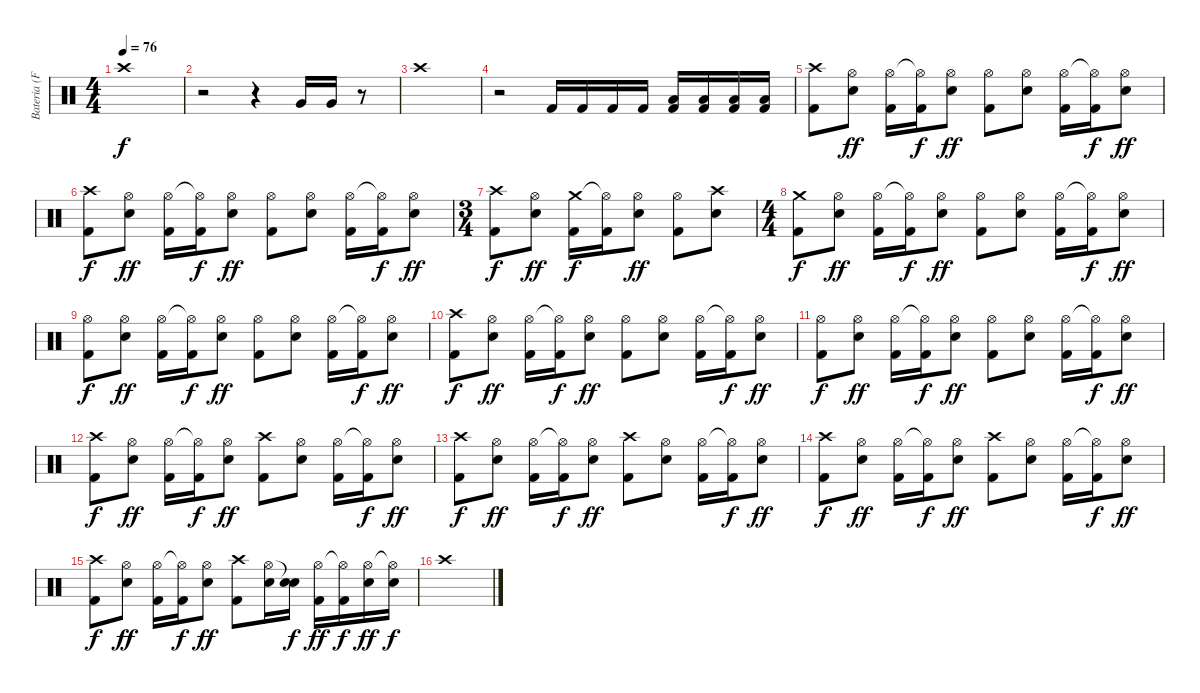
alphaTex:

\track ("Bateria (Fê Lemos)" "Bateria (F") {instrument percussion}
\staff {score}
\articulation defaults
\ts (4 4)
\tempo 76
\clef neutral
\ks c "Crash high (hit)".1{dy f}
|
r.2 r.4 "Very Low Tom (hit)".16 "Very Low Tom (hit)".16 r.8 |
"Crash high (hit)".1 |
r.2 "Kick (hit) 2".16 "Kick (hit) 2".16 "Kick (hit) 2".16 "Kick (hit) 2".16 ("Low Tom (hit)" "Kick (hit) 2").16 ("Low Tom (hit)" "Kick (hit) 2").16 ("Low Tom (hit)" "Kick (hit) 2").16 ("Low Tom (hit)" "Kick (hit) 2").16 |
("Crash high (hit)" "Kick (hit) 2").8 ("Hi-Hat (open)" "Electric Snare (hit)").8{dy ff} ("Hi-Hat (open)" "Kick (hit) 2").16 ("Hi-Hat (open)"{t} "Kick (hit) 2").16{dy f} ("Hi-Hat (open)" "Electric Snare (hit)").8{dy ff} ("Hi-Hat (open)" "Kick (hit) 2").8 ("Hi-Hat (open)" "Electric Snare (hit)").8 ("Hi-Hat (open)" "Kick (hit) 2").16 ("Hi-Hat (open)"{t} "Kick (hit) 2").16{dy f} ("Hi-Hat (open)" "Electric Snare (hit)").8{dy ff} |
("Crash high (hit)" "Kick (hit) 2").8{dy f} ("Hi-Hat (open)" "Electric Snare (hit)").8{dy ff} ("Hi-Hat (open)" "Kick (hit) 2").16 ("Hi-Hat (open)"{t} "Kick (hit) 2").16{dy f} ("Hi-Hat (open)" "Electric Snare (hit)").8{dy ff} ("Hi-Hat (open)" "Kick (hit) 2").8 ("Hi-Hat (open)" "Electric Snare (hit)").8 ("Hi-Hat (open)" "Kick (hit) 2").16 ("Hi-Hat (open)"{t} "Kick (hit) 2").16{dy f} ("Hi-Hat (open)" "Electric Snare (hit)").8{dy ff} |
\ts (3 4)
("Crash high (hit)" "Kick (hit) 2").8{dy f} ("Hi-Hat (open)" "Electric Snare (hit)").8{dy ff} ("Crash medium (hit)" "Kick (hit) 2").16{dy f} ("Hi-Hat (open)"{t} "Kick (hit) 2").16 ("Hi-Hat (open)" "Electric Snare (hit)").8{dy ff} ("Hi-Hat (open)" "Kick (hit) 2").8 ("Crash high (hit)" "Electric Snare (hit)").8 |
\ts (4 4)
("Crash medium (hit)" "Kick (hit) 2").8{dy f} ("Hi-Hat (open)" "Electric Snare (hit)").8{dy ff} ("Hi-Hat (open)" "Kick (hit) 2").16 ("Hi-Hat (open)"{t} "Kick (hit) 2").16{dy f} ("Hi-Hat (open)" "Electric Snare (hit)").8{dy ff} ("Hi-Hat (open)" "Kick (hit) 2").8 ("Hi-Hat (open)" "Electric Snare (hit)").8 ("Hi-Hat (open)" "Kick (hit) 2").16 ("Hi-Hat (open)"{t} "Kick (hit) 2").16{dy f} ("Hi-Hat (open)" "Electric Snare (hit)").8{dy ff} |
("Hi-Hat (open)" "Kick (hit) 2").8{dy f} ("Hi-Hat (open)" "Electric Snare (hit)").8{dy ff} ("Hi-Hat (open)" "Kick (hit) 2").16 ("Hi-Hat (open)"{t} "Kick (hit) 2").16{dy f} ("Hi-Hat (open)" "Electric Snare (hit)").8{dy ff} ("Hi-Hat (open)" "Kick (hit) 2").8 ("Hi-Hat (open)" "Electric Snare (hit)").8 ("Hi-Hat (open)" "Kick (hit) 2").16 ("Hi-Hat (open)"{t} "Kick (hit) 2").16{dy f} ("Hi-Hat (open)" "Electric Snare (hit)").8{dy ff} |
("Crash high (hit)" "Kick (hit) 2").8{dy f} ("Hi-Hat (open)" "Electric Snare (hit)").8{dy ff} ("Hi-Hat (open)" "Kick (hit) 2").16 ("Hi-Hat (open)"{t} "Kick (hit) 2").16{dy f} ("Hi-Hat (open)" "Electric Snare (hit)").8{dy ff} ("Hi-Hat (open)" "Kick (hit) 2").8 ("Hi-Hat (open)" "Electric Snare (hit)").8 ("Hi-Hat (open)" "Kick (hit) 2").16 ("Hi-Hat (open)"{t} "Kick (hit) 2").16{dy f} ("Hi-Hat (open)" "Electric Snare (hit)").8{dy ff} |
("Hi-Hat (open)" "Kick (hit) 2").8{dy f} ("Hi-Hat (open)" "Electric Snare (hit)").8{dy ff} ("Hi-Hat (open)" "Kick (hit) 2").16 ("Hi-Hat (open)"{t} "Kick (hit) 2").16{dy f} ("Hi-Hat (open)" "Electric Snare (hit)").8{dy ff} ("Hi-Hat (open)" "Kick (hit) 2").8 ("Hi-Hat (open)" "Electric Snare (hit)").8 ("Hi-Hat (open)" "Kick (hit) 2").16 ("Hi-Hat (open)"{t} "Kick (hit) 2").16{dy f} ("Hi-Hat (open)" "Electric Snare (hit)").8{dy ff} |
("Crash high (hit)" "Kick (hit) 2").8{dy f} ("Hi-Hat (open)" "Electric Snare (hit)").8{dy ff} ("Hi-Hat (open)" "Kick (hit) 2").16 ("Hi-Hat (open)"{t} "Kick (hit) 2").16{dy f} ("Hi-Hat (open)" "Electric Snare (hit)").8{dy ff} ("Crash high (hit)" "Kick (hit) 2").8 ("Hi-Hat (open)" "Electric Snare (hit)").8 ("Hi-Hat (open)" "Kick (hit) 2").16 ("Hi-Hat (open)"{t} "Kick (hit) 2").16{dy f} ("Hi-Hat (open)" "Electric Snare (hit)").8{dy ff} |
("Crash high (hit)" "Kick (hit) 2").8{dy f} ("Hi-Hat (open)" "Electric Snare (hit)").8{dy ff} ("Hi-Hat (open)" "Kick (hit) 2").16 ("Hi-Hat (open)"{t} "Kick (hit) 2").16{dy f} ("Hi-Hat (open)" "Electric Snare (hit)").8{dy ff} ("Crash high (hit)" "Kick (hit) 2").8 ("Hi-Hat (open)" "Electric Snare (hit)").8 ("Hi-Hat (open)" "Kick (hit) 2").16 ("Hi-Hat (open)"{t} "Kick (hit) 2").16{dy f} ("Hi-Hat (open)" "Electric Snare (hit)").8{dy ff} |
("Crash high (hit)" "Kick (hit) 2").8{dy f} ("Hi-Hat (open)" "Electric Snare (hit)").8{dy ff} ("Hi-Hat (open)" "Kick (hit) 2").16 ("Hi-Hat (open)"{t} "Kick (hit) 2").16{dy f} ("Hi-Hat (open)" "Electric Snare (hit)").8{dy ff} ("Crash high (hit)" "Kick (hit) 2").8 ("Hi-Hat (open)" "Electric Snare (hit)").8 ("Hi-Hat (open)" "Kick (hit) 2").16 ("Hi-Hat (open)"{t} "Kick (hit) 2").16{dy f} ("Hi-Hat (open)" "Electric Snare (hit)").8{dy ff} |
("Crash high (hit)" "Kick (hit) 2").8{dy f} ("Hi-Hat (open)" "Electric Snare (hit)").8{dy ff} ("Hi-Hat (open)" "Kick (hit) 2").16 ("Hi-Hat (open)"{t} "Kick (hit) 2").16{dy f} ("Hi-Hat (open)" "Electric Snare (hit)").8{dy ff} ("Crash high (hit)" "Kick (hit) 2").8 ("Hi-Hat (open)" "Electric Snare (hit)").16 ("Snare (hit)"{t} "Electric Snare (hit)").16{dy f} ("Hi-Hat (open)" "Kick (hit) 2").16{dy ff} ("Hi-Hat (open)"{t} "Kick (hit) 2").16{dy f} ("Hi-Hat (open)" "Electric Snare (hit)").16{dy ff} ("Hi-Hat (open)"{t} "Electric Snare (hit)").16{dy f} |
"Crash high (hit)".1
